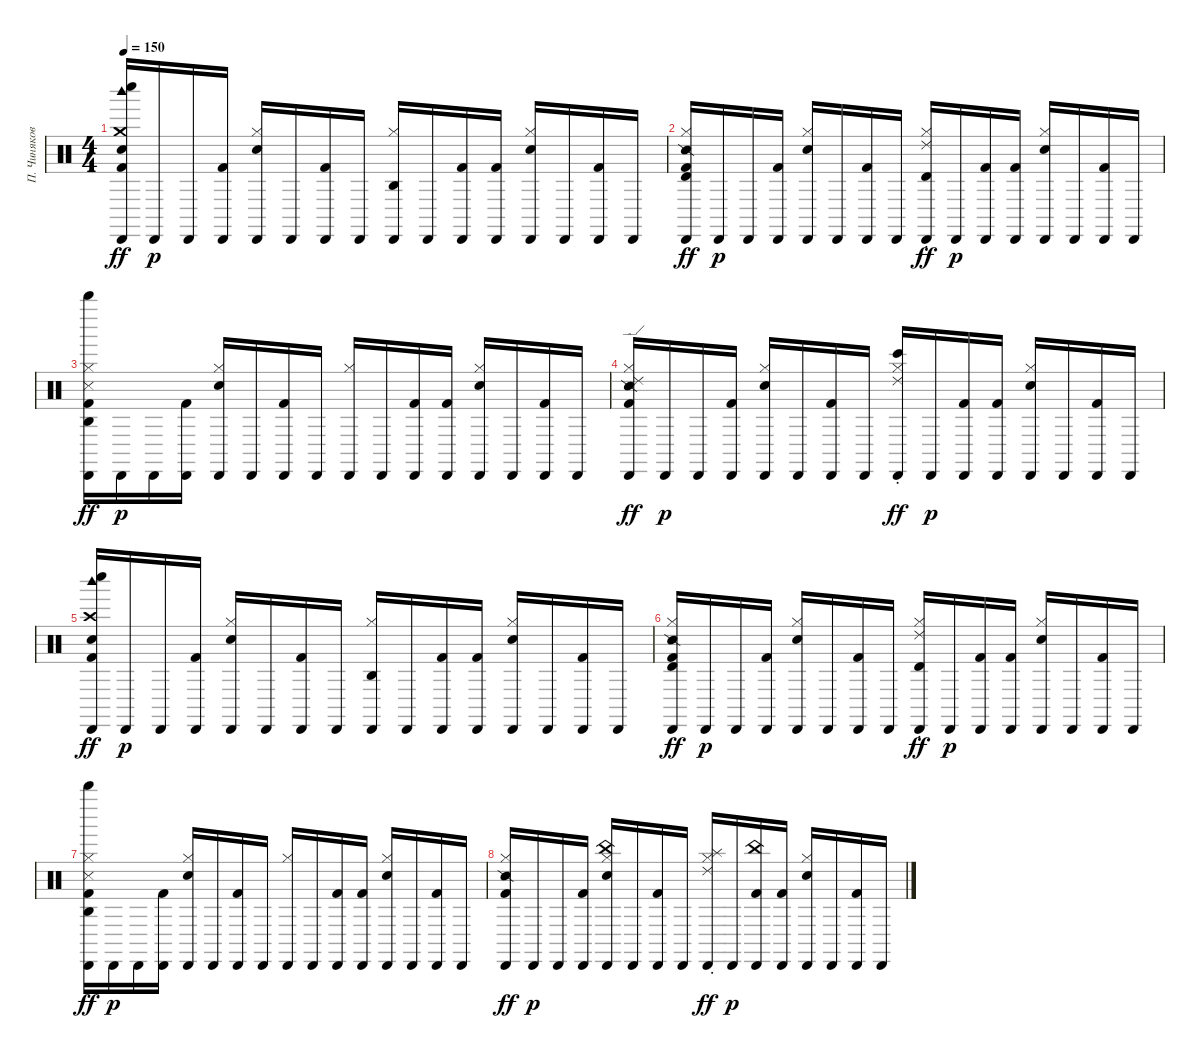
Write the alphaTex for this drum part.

\track ("П. Чиняков" "П. Чиняков") {instrument percussion}
\staff {score}
\articulation defaults
\ts (4 4)
\tempo 150
\clef neutral
\ks c
("Cabasa (hit)" "Crash medium (hit)" "Kick (hit) 2" "Snare (hit) 2" "Woodblock high (hit)" "Whistle low (hit)").16{dy ff} "Cabasa (hit)".16{dy p} "Cabasa (hit)".16 ("Cabasa (hit)" "Kick (hit) 2").16 ("Hi-Hat (closed)" "Cabasa (hit)" "Snare (hit) 2").16 "Cabasa (hit)".16 ("Cabasa (hit)" "Kick (hit) 2").16 "Cabasa (hit)".16 ("Hi-Hat (closed)" "Cabasa (hit)" "Agogo high (hit)").16 "Cabasa (hit)".16 ("Cabasa (hit)" "Kick (hit) 2").16 ("Cabasa (hit)" "Kick (hit) 2").16 ("Hi-Hat (closed)" "Cabasa (hit)" "Snare (hit) 2").16 "Cabasa (hit)".16 ("Cabasa (hit)" "Kick (hit) 2").16 "Cabasa (hit)".16 |
("Hi-Hat (closed)" "Cabasa (hit)" "Kick (hit) 2" "Snare (side stick) 2" "Timbale high (hit)").16{dy ff} "Cabasa (hit)".16{dy p} "Cabasa (hit)".16 ("Cabasa (hit)" "Kick (hit) 2").16 ("Hi-Hat (closed)" "Cabasa (hit)" "Snare (hit) 2").16 "Cabasa (hit)".16 ("Cabasa (hit)" "Kick (hit) 2").16 "Cabasa (hit)".16 ("Hi-Hat (closed)" "Cabasa (hit)" "Ride (choke) 2" "Timbale high (hit)").16{dy ff} "Cabasa (hit)".16{dy p} ("Cabasa (hit)" "Kick (hit) 2").16 ("Cabasa (hit)" "Kick (hit) 2").16 ("Hi-Hat (closed)" "Cabasa (hit)" "Snare (hit) 2").16 "Cabasa (hit)".16 ("Cabasa (hit)" "Kick (hit) 2").16 "Cabasa (hit)".16 |
("Hi-Hat (closed)" "Cabasa (hit)" "Kick (hit) 2" "Metronome (hit)" "Whistle high (hit)" "Agogo high (hit)").16{dy ff} "Cabasa (hit)".16{dy p} "Cabasa (hit)".16 ("Cabasa (hit)" "Kick (hit) 2").16 ("Hi-Hat (closed)" "Cabasa (hit)" "Snare (hit) 2").16 "Cabasa (hit)".16 ("Cabasa (hit)" "Kick (hit) 2").16 "Cabasa (hit)".16 ("Hi-Hat (closed)" "Cabasa (hit)").16 "Cabasa (hit)".16 ("Cabasa (hit)" "Kick (hit) 2").16 ("Cabasa (hit)" "Kick (hit) 2").16 ("Hi-Hat (closed)" "Cabasa (hit)" "Snare (hit) 2").16 "Cabasa (hit)".16 ("Cabasa (hit)" "Kick (hit) 2").16 "Cabasa (hit)".16 |
("Hi-Hat (closed)" "Cabasa (hit)" "Kick (hit) 2" "Snare (side stick) 2" "Ride (edge) 2").16{dy ff} "Cabasa (hit)".16{dy p} "Cabasa (hit)".16 ("Cabasa (hit)" "Kick (hit) 2").16 ("Hi-Hat (closed)" "Cabasa (hit)" "Snare (hit) 2").16 "Cabasa (hit)".16 ("Cabasa (hit)" "Kick (hit) 2").16 "Cabasa (hit)".16 ("Hi-Hat (closed)" "Cabasa (hit)" "Ride (choke) 2" "Bongo High (hit)").16{dy ff} "Cabasa (hit)".16{dy p} ("Cabasa (hit)" "Kick (hit) 2").16 ("Cabasa (hit)" "Kick (hit) 2").16 ("Hi-Hat (closed)" "Cabasa (hit)" "Snare (hit) 2").16 "Cabasa (hit)".16 ("Cabasa (hit)" "Kick (hit) 2").16 "Cabasa (hit)".16 |
("Cabasa (hit)" "Crash high (hit)" "Kick (hit) 2" "Snare (hit) 2" "Woodblock high (hit)" "Whistle low (hit)").16{dy ff} "Cabasa (hit)".16{dy p} "Cabasa (hit)".16 ("Cabasa (hit)" "Kick (hit) 2").16 ("Hi-Hat (closed)" "Cabasa (hit)" "Snare (hit) 2").16 "Cabasa (hit)".16 ("Cabasa (hit)" "Kick (hit) 2").16 "Cabasa (hit)".16 ("Hi-Hat (closed)" "Cabasa (hit)" "Agogo high (hit)").16 "Cabasa (hit)".16 ("Cabasa (hit)" "Kick (hit) 2").16 ("Cabasa (hit)" "Kick (hit) 2").16 ("Hi-Hat (closed)" "Cabasa (hit)" "Snare (hit) 2").16 "Cabasa (hit)".16 ("Cabasa (hit)" "Kick (hit) 2").16 "Cabasa (hit)".16 |
("Hi-Hat (closed)" "Cabasa (hit)" "Kick (hit) 2" "Snare (side stick) 2" "Timbale high (hit)").16{dy ff} "Cabasa (hit)".16{dy p} "Cabasa (hit)".16 ("Cabasa (hit)" "Kick (hit) 2").16 ("Hi-Hat (closed)" "Cabasa (hit)" "Snare (hit) 2").16 "Cabasa (hit)".16 ("Cabasa (hit)" "Kick (hit) 2").16 "Cabasa (hit)".16 ("Hi-Hat (closed)" "Cabasa (hit)" "Ride (choke) 2" "Timbale high (hit)").16{dy ff} "Cabasa (hit)".16{dy p} ("Cabasa (hit)" "Kick (hit) 2").16 ("Cabasa (hit)" "Kick (hit) 2").16 ("Hi-Hat (closed)" "Cabasa (hit)" "Snare (hit) 2").16 "Cabasa (hit)".16 ("Cabasa (hit)" "Kick (hit) 2").16 "Cabasa (hit)".16 |
("Hi-Hat (closed)" "Cabasa (hit)" "Kick (hit) 2" "Metronome (hit)" "Whistle high (hit)" "Agogo high (hit)").16{dy ff} "Cabasa (hit)".16{dy p} "Cabasa (hit)".16 ("Cabasa (hit)" "Kick (hit) 2").16 ("Hi-Hat (closed)" "Cabasa (hit)" "Snare (hit) 2").16 "Cabasa (hit)".16 ("Cabasa (hit)" "Kick (hit) 2").16 "Cabasa (hit)".16 ("Hi-Hat (closed)" "Cabasa (hit)").16 "Cabasa (hit)".16 ("Cabasa (hit)" "Kick (hit) 2").16 ("Cabasa (hit)" "Kick (hit) 2").16 ("Hi-Hat (closed)" "Cabasa (hit)" "Snare (hit) 2").16 "Cabasa (hit)".16 ("Cabasa (hit)" "Kick (hit) 2").16 "Cabasa (hit)".16 |
("Hi-Hat (closed)" "Cabasa (hit)" "Kick (hit) 2" "Snare (side stick) 2").16{dy ff} "Cabasa (hit)".16{dy p} "Cabasa (hit)".16 ("Cabasa (hit)" "Kick (hit) 2").16 ("Hi-Hat (closed)" "Cabasa (hit)" "Snare (hit) 2" "China (hit)").16 "Cabasa (hit)".16 ("Cabasa (hit)" "Kick (hit) 2").16 "Cabasa (hit)".16 ("Hi-Hat (closed)" "Cabasa (hit)" "Ride (choke) 2" "Splash (hit)").16{dy ff} "Cabasa (hit)".16{dy p} ("Cabasa (hit)" "Kick (hit) 2" "China (hit)").16 ("Cabasa (hit)" "Kick (hit) 2").16 ("Hi-Hat (closed)" "Cabasa (hit)" "Snare (hit) 2").16 "Cabasa (hit)".16 ("Cabasa (hit)" "Kick (hit) 2").16 "Cabasa (hit)".16
